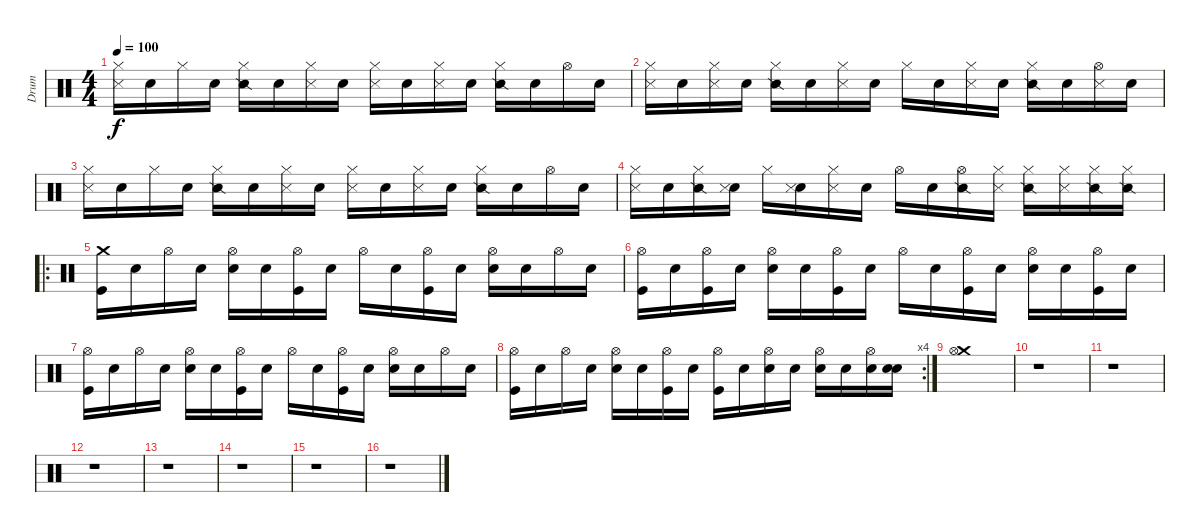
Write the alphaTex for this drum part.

\track ("Drum" "Drum") {instrument percussion}
\staff {score}
\articulation defaults
\ts (4 4)
\tempo 100
\clef neutral
\ks c
("Hi-Hat (closed)" "Metronome (hit)").16{dy f} "Snare (hit)".16 "Hi-Hat (closed)".16 "Snare (hit)".16 ("Hi-Hat (closed)" "Snare (side stick) 2").16 "Snare (hit)".16 ("Hi-Hat (closed)" "Metronome (hit)").16 "Snare (hit)".16 ("Hi-Hat (closed)" "Metronome (hit)").16 "Snare (hit)".16 ("Hi-Hat (closed)" "Metronome (hit)").16 "Snare (hit)".16 ("Hi-Hat (closed)" "Snare (side stick) 2").16 "Snare (hit)".16 "Hi-Hat (open)".16 "Snare (hit)".16 |
("Hi-Hat (closed)" "Metronome (hit)").16 "Snare (hit)".16 ("Hi-Hat (closed)" "Metronome (hit)").16 "Snare (hit)".16 ("Hi-Hat (closed)" "Snare (side stick) 2").16 "Snare (hit)".16 ("Hi-Hat (closed)" "Metronome (hit)").16 "Snare (hit)".16 "Hi-Hat (closed)".16 "Snare (hit)".16 ("Hi-Hat (closed)" "Metronome (hit)").16 "Snare (hit)".16 ("Hi-Hat (closed)" "Snare (side stick) 2").16 "Snare (hit)".16 ("Hi-Hat (open)" "Metronome (hit)").16 "Snare (hit)".16 |
("Hi-Hat (closed)" "Metronome (hit)").16 "Snare (hit)".16 "Hi-Hat (closed)".16 "Snare (hit)".16 ("Hi-Hat (closed)" "Snare (side stick) 2").16 "Snare (hit)".16 ("Hi-Hat (closed)" "Metronome (hit)").16 "Snare (hit)".16 ("Hi-Hat (closed)" "Metronome (hit)").16 "Snare (hit)".16 ("Hi-Hat (closed)" "Metronome (hit)").16 "Snare (hit)".16 ("Hi-Hat (closed)" "Snare (side stick) 2").16 "Snare (hit)".16 "Hi-Hat (open)".16 "Snare (hit)".16 |
("Hi-Hat (closed)" "Metronome (hit)").16 "Snare (hit)".16 ("Hi-Hat (closed)" "Snare (side stick) 2").16 ("Snare (hit)" "Metronome (hit)").16 "Hi-Hat (closed)".16 ("Snare (hit)" "Metronome (hit)").16 ("Hi-Hat (closed)" "Metronome (hit)").16 "Snare (hit)".16 "Hi-Hat (open)".16 "Snare (hit)".16 ("Hi-Hat (open)" "Snare (side stick) 2").16 ("Hi-Hat (closed)" "Metronome (hit)").16 ("Hi-Hat (closed)" "Snare (side stick) 2").16 ("Hi-Hat (closed)" "Metronome (hit)").16 ("Hi-Hat (closed)" "Snare (side stick) 2").16 ("Hi-Hat (closed)" "Snare (side stick) 2").16 |
\ro
("Crash medium (hit)" "Kick (hit)").16 "Snare (hit)".16 "Hi-Hat (open)".16 "Snare (hit)".16 ("Hi-Hat (open)" "Electric Snare (hit)").16 "Snare (hit)".16 ("Hi-Hat (open)" "Kick (hit)").16 "Snare (hit)".16 "Hi-Hat (open)".16 "Snare (hit)".16 ("Hi-Hat (open)" "Kick (hit)").16 "Snare (hit)".16 ("Hi-Hat (open)" "Electric Snare (hit)").16 "Snare (hit)".16 "Hi-Hat (open)".16 "Snare (hit)".16 |
("Hi-Hat (open)" "Kick (hit)").16 "Snare (hit)".16 ("Hi-Hat (open)" "Kick (hit)").16 "Snare (hit)".16 ("Hi-Hat (open)" "Electric Snare (hit)").16 "Snare (hit)".16 ("Hi-Hat (open)" "Kick (hit)").16 "Snare (hit)".16 "Hi-Hat (open)".16 "Snare (hit)".16 ("Hi-Hat (open)" "Kick (hit)").16 "Snare (hit)".16 ("Hi-Hat (open)" "Electric Snare (hit)").16 "Snare (hit)".16 ("Hi-Hat (open)" "Kick (hit)").16 "Snare (hit)".16 |
("Hi-Hat (open)" "Kick (hit)").16 "Snare (hit)".16 "Hi-Hat (open)".16 "Snare (hit)".16 ("Hi-Hat (open)" "Electric Snare (hit)").16 "Snare (hit)".16 ("Hi-Hat (open)" "Kick (hit)").16 "Snare (hit)".16 "Hi-Hat (open)".16 "Snare (hit)".16 ("Hi-Hat (open)" "Kick (hit)").16 "Snare (hit)".16 ("Hi-Hat (open)" "Electric Snare (hit)").16 "Snare (hit)".16 "Hi-Hat (open)".16 "Snare (hit)".16 |
\rc 4
("Hi-Hat (open)" "Kick (hit)").16 "Snare (hit)".16 "Hi-Hat (open)".16 "Snare (hit)".16 ("Hi-Hat (open)" "Electric Snare (hit)").16 "Snare (hit)".16 ("Hi-Hat (open)" "Kick (hit)").16 "Snare (hit)".16 ("Hi-Hat (open)" "Kick (hit)").16 "Snare (hit)".16 ("Hi-Hat (open)" "Electric Snare (hit)").16 "Snare (hit)".16 ("Hi-Hat (open)" "Electric Snare (hit)").16 "Snare (hit)".16 ("Hi-Hat (open)" "Electric Snare (hit)").16 ("Snare (hit)" "Electric Snare (hit)").16 |
("Crash medium (hit)" "Hi-Hat (open)").1 |
r.1 |
r.1 |
r.1 |
r.1 |
r.1 |
r.1 |
r.1
